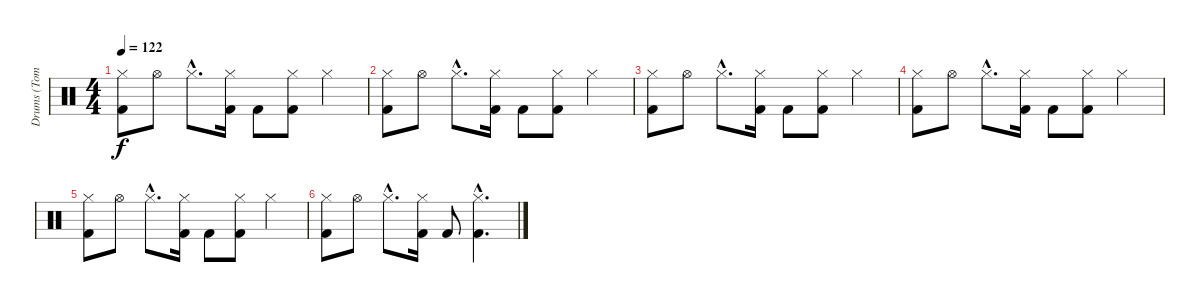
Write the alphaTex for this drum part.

\track ("Drums (Tommy Decker)" "Drums (Tom") {instrument percussion}
\staff {score}
\articulation defaults
\ts (4 4)
\tempo 122
\clef neutral
\ks c
("Hi-Hat (closed)" "Kick (hit) 2").8{dy f} "Hi-Hat (open)".8 "Hi-Hat (closed)"{hac}.8{d} ("Hi-Hat (closed)" "Kick (hit) 2").16 "Kick (hit) 2".8 ("Hi-Hat (closed)" "Kick (hit) 2").8 "Hi-Hat (closed)".4 |
("Hi-Hat (closed)" "Kick (hit) 2").8 "Hi-Hat (open)".8 "Hi-Hat (closed)"{hac}.8{d} ("Hi-Hat (closed)" "Kick (hit) 2").16 "Kick (hit) 2".8 ("Hi-Hat (closed)" "Kick (hit) 2").8 "Hi-Hat (closed)".4 |
("Hi-Hat (closed)" "Kick (hit) 2").8 "Hi-Hat (open)".8 "Hi-Hat (closed)"{hac}.8{d} ("Hi-Hat (closed)" "Kick (hit) 2").16 "Kick (hit) 2".8 ("Hi-Hat (closed)" "Kick (hit) 2").8 "Hi-Hat (closed)".4 |
("Hi-Hat (closed)" "Kick (hit) 2").8 "Hi-Hat (open)".8 "Hi-Hat (closed)"{hac}.8{d} ("Hi-Hat (closed)" "Kick (hit) 2").16 "Kick (hit) 2".8 ("Hi-Hat (closed)" "Kick (hit) 2").8 "Hi-Hat (closed)".4 |
("Hi-Hat (closed)" "Kick (hit) 2").8 "Hi-Hat (open)".8 "Hi-Hat (closed)"{hac}.8{d} ("Hi-Hat (closed)" "Kick (hit) 2").16 "Kick (hit) 2".8 ("Hi-Hat (closed)" "Kick (hit) 2").8 "Hi-Hat (closed)".4 |
("Hi-Hat (closed)" "Kick (hit) 2").8 "Hi-Hat (open)".8 "Hi-Hat (closed)"{hac}.8{d} ("Hi-Hat (closed)" "Kick (hit) 2").16 "Kick (hit) 2".8 ("Hi-Hat (closed)"{hac} "Kick (hit) 2"{hac}).4{d}
